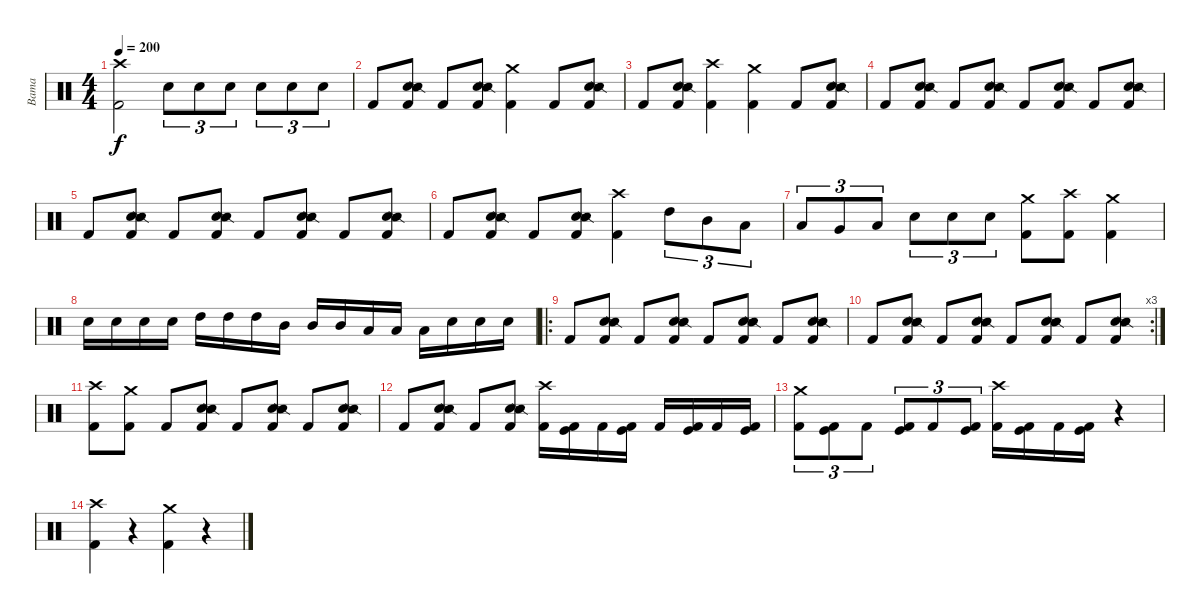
\track ("Bama" "Bama") {instrument percussion}
\staff {score}
\articulation defaults
\ts (4 4)
\tempo 200
\clef neutral
\ks c
("Crash high (hit)" "Kick (hit) 2").2{dy f} "Electric Snare (hit)".8{tu (3 2)} "Electric Snare (hit)".8{tu (3 2)} "Electric Snare (hit)".8{tu (3 2)} "Electric Snare (hit)".8{tu (3 2)} "Electric Snare (hit)".8{tu (3 2)} "Electric Snare (hit)".8{tu (3 2)} |
"Kick (hit) 2".8 ("Electric Snare (hit)" "Snare (side stick) 2" "Kick (hit) 2").8 "Kick (hit) 2".8 ("Electric Snare (hit)" "Snare (side stick) 2" "Kick (hit) 2").8 ("Crash medium (hit)" "Kick (hit) 2").4 "Kick (hit) 2".8 ("Electric Snare (hit)" "Snare (side stick) 2" "Kick (hit) 2").8 |
"Kick (hit) 2".8 ("Electric Snare (hit)" "Snare (side stick) 2" "Kick (hit) 2").8 ("Crash high (hit)" "Kick (hit) 2").4 ("Crash medium (hit)" "Kick (hit) 2").4 "Kick (hit) 2".8 ("Electric Snare (hit)" "Snare (side stick) 2" "Kick (hit) 2").8 |
"Kick (hit) 2".8 ("Electric Snare (hit)" "Snare (side stick) 2" "Kick (hit) 2").8 "Kick (hit) 2".8 ("Electric Snare (hit)" "Snare (side stick) 2" "Kick (hit) 2").8 "Kick (hit) 2".8 ("Electric Snare (hit)" "Snare (side stick) 2" "Kick (hit) 2").8 "Kick (hit) 2".8 ("Electric Snare (hit)" "Snare (side stick) 2" "Kick (hit) 2").8 |
"Kick (hit) 2".8 ("Electric Snare (hit)" "Snare (side stick) 2" "Kick (hit) 2").8 "Kick (hit) 2".8 ("Electric Snare (hit)" "Snare (side stick) 2" "Kick (hit) 2").8 "Kick (hit) 2".8 ("Electric Snare (hit)" "Snare (side stick) 2" "Kick (hit) 2").8 "Kick (hit) 2".8 ("Electric Snare (hit)" "Snare (side stick) 2" "Kick (hit) 2").8 |
"Kick (hit) 2".8 ("Electric Snare (hit)" "Snare (side stick) 2" "Kick (hit) 2").8 "Kick (hit) 2".8 ("Electric Snare (hit)" "Snare (side stick) 2" "Kick (hit) 2").8 ("Crash high (hit)" "Kick (hit) 2").4 "High Tom (hit)".8{tu (3 2)} "Mid Tom (hit)".8{tu (3 2)} "Low Tom (hit)".8{tu (3 2)} |
"Low Tom (hit)".8{tu (3 2)} "Very Low Tom (hit)".8{tu (3 2)} "Low Floor Tom (hit)".8{tu (3 2)} "Electric Snare (hit)".8{tu (3 2)} "Electric Snare (hit)".8{tu (3 2)} "Electric Snare (hit)".8{tu (3 2)} ("Crash medium (hit)" "Kick (hit) 2").8 ("Crash high (hit)" "Kick (hit) 2").8 ("Crash medium (hit)" "Kick (hit) 2").4 |
"Electric Snare (hit)".16 "Electric Snare (hit)".16 "Electric Snare (hit)".16 "Electric Snare (hit)".16 "High Tom (hit)".16 "High Tom (hit)".16 "High Tom (hit)".16 "Mid Tom (hit)".16 "Mid Tom (hit)".16 "Mid Tom (hit)".16 "Low Tom (hit)".16 "Low Tom (hit)".16 "Low Tom (hit)".16 "Electric Snare (hit)".16 "Electric Snare (hit)".16 "Electric Snare (hit)".16 |
\ro "Kick (hit) 2".8
("Electric Snare (hit)" "Snare (side stick) 2" "Kick (hit) 2").8 "Kick (hit) 2".8 ("Electric Snare (hit)" "Snare (side stick) 2" "Kick (hit) 2").8 "Kick (hit) 2".8 ("Electric Snare (hit)" "Snare (side stick) 2" "Kick (hit) 2").8 "Kick (hit) 2".8 ("Electric Snare (hit)" "Snare (side stick) 2" "Kick (hit) 2").8 |
\rc 3 "Kick (hit) 2".8
("Electric Snare (hit)" "Snare (side stick) 2" "Kick (hit) 2").8 "Kick (hit) 2".8 ("Electric Snare (hit)" "Snare (side stick) 2" "Kick (hit) 2").8 "Kick (hit) 2".8 ("Electric Snare (hit)" "Snare (side stick) 2" "Kick (hit) 2").8 "Kick (hit) 2".8 ("Electric Snare (hit)" "Snare (side stick) 2" "Kick (hit) 2").8 |
("Crash high (hit)" "Kick (hit) 2").8 ("Crash medium (hit)" "Kick (hit) 2").8 "Kick (hit) 2".8 ("Electric Snare (hit)" "Snare (side stick) 2" "Kick (hit) 2").8 "Kick (hit) 2".8 ("Electric Snare (hit)" "Snare (side stick) 2" "Kick (hit) 2").8 "Kick (hit) 2".8 ("Electric Snare (hit)" "Snare (side stick) 2" "Kick (hit) 2").8 |
"Kick (hit) 2".8 ("Electric Snare (hit)" "Snare (side stick) 2" "Kick (hit) 2").8 "Kick (hit) 2".8 ("Electric Snare (hit)" "Snare (side stick) 2" "Kick (hit) 2").8 ("Crash high (hit)" "Kick (hit) 2").16 ("Kick (hit)" "Kick (hit) 2").16 "Kick (hit) 2".16 ("Kick (hit)" "Kick (hit) 2").16 "Kick (hit) 2".16 ("Kick (hit)" "Kick (hit) 2").16 "Kick (hit) 2".16 ("Kick (hit)" "Kick (hit) 2").16 |
("Crash medium (hit)" "Kick (hit) 2").8{tu (3 2)} ("Kick (hit)" "Kick (hit) 2").8{tu (3 2)} "Kick (hit) 2".8{tu (3 2)} ("Kick (hit)" "Kick (hit) 2").8{tu (3 2)} "Kick (hit) 2".8{tu (3 2)} ("Kick (hit)" "Kick (hit) 2").8{tu (3 2)} ("Crash high (hit)" "Kick (hit) 2").16 ("Kick (hit)" "Kick (hit) 2").16 "Kick (hit) 2".16 ("Kick (hit)" "Kick (hit) 2").16 r.4 |
("Crash high (hit)" "Kick (hit) 2").4 r.4 ("Crash medium (hit)" "Kick (hit) 2").4 r.4
